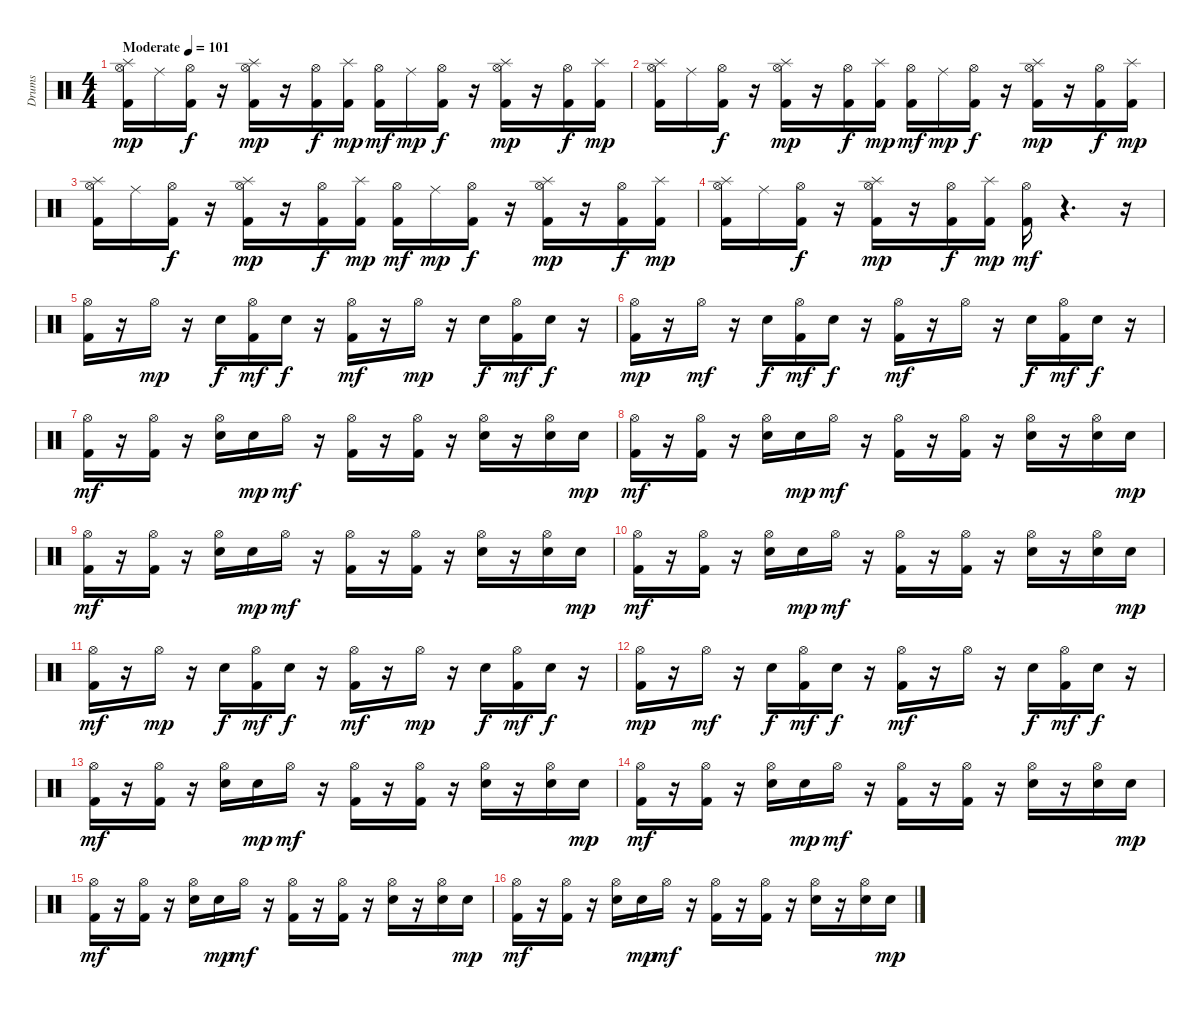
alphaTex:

\track ("Drums" "Drums") {instrument percussion}
\staff {score}
\articulation defaults
\ts (4 4)
\tempo (101 "Moderate")
\clef neutral
\ks c
("Hi-Hat (open)" "Kick (hit) 2" "Splash (hit)").16{dy mp} "Ride (middle)".16 ("Kick (hit) 2" "Hi-Hat (open)").16{dy f} r.16 ("Hi-Hat (open)" "Kick (hit) 2" "Splash (hit)").16{dy mp} r.16 ("Kick (hit) 2" "Hi-Hat (open)").16{dy f} ("Kick (hit) 2" "Splash (hit)").16{dy mp} ("Hi-Hat (open)" "Kick (hit) 2").16{dy mf} "Ride (middle)".16{dy mp} ("Kick (hit) 2" "Hi-Hat (open)").16{dy f} r.16 ("Hi-Hat (open)" "Kick (hit) 2" "Splash (hit)").16{dy mp} r.16 ("Hi-Hat (open)" "Kick (hit) 2").16{dy f} ("Kick (hit) 2" "Splash (hit)").16{dy mp} |
("Hi-Hat (open)" "Kick (hit) 2" "Splash (hit)").16 "Ride (middle)".16 ("Kick (hit) 2" "Hi-Hat (open)").16{dy f} r.16 ("Hi-Hat (open)" "Kick (hit) 2" "Splash (hit)").16{dy mp} r.16 ("Kick (hit) 2" "Hi-Hat (open)").16{dy f} ("Kick (hit) 2" "Splash (hit)").16{dy mp} ("Hi-Hat (open)" "Kick (hit) 2").16{dy mf} "Ride (middle)".16{dy mp} ("Kick (hit) 2" "Hi-Hat (open)").16{dy f} r.16 ("Hi-Hat (open)" "Kick (hit) 2" "Splash (hit)").16{dy mp} r.16 ("Kick (hit) 2" "Hi-Hat (open)").16{dy f} ("Kick (hit) 2" "Splash (hit)").16{dy mp} |
("Hi-Hat (open)" "Kick (hit) 2" "Splash (hit)").16 "Ride (middle)".16 ("Kick (hit) 2" "Hi-Hat (open)").16{dy f} r.16 ("Hi-Hat (open)" "Kick (hit) 2" "Splash (hit)").16{dy mp} r.16 ("Kick (hit) 2" "Hi-Hat (open)").16{dy f} ("Kick (hit) 2" "Splash (hit)").16{dy mp} ("Hi-Hat (open)" "Kick (hit) 2").16{dy mf} "Ride (middle)".16{dy mp} ("Kick (hit) 2" "Hi-Hat (open)").16{dy f} r.16 ("Hi-Hat (open)" "Kick (hit) 2" "Splash (hit)").16{dy mp} r.16 ("Kick (hit) 2" "Hi-Hat (open)").16{dy f} ("Splash (hit)" "Kick (hit) 2").16{dy mp} |
("Hi-Hat (open)" "Kick (hit) 2" "Splash (hit)").16 "Ride (middle)".16 ("Kick (hit) 2" "Hi-Hat (open)").16{dy f} r.16 ("Hi-Hat (open)" "Splash (hit)" "Kick (hit) 2").16{dy mp} r.16 ("Kick (hit) 2" "Hi-Hat (open)").16{dy f} ("Splash (hit)" "Kick (hit) 2").16{dy mp} ("Kick (hit) 2" "Hi-Hat (open)").16{dy mf} r.4{d} r.16 |
("Kick (hit) 2" "Hi-Hat (open)").16 r.16 "Hi-Hat (open)".16{dy mp} r.16 "Snare (hit) 2".16{dy f} ("Kick (hit) 2" "Hi-Hat (open)").16{dy mf} "Snare (hit) 2".16{dy f} r.16 ("Kick (hit) 2" "Hi-Hat (open)").16{dy mf} r.16 "Hi-Hat (open)".16{dy mp} r.16 "Snare (hit) 2".16{dy f} ("Kick (hit) 2" "Hi-Hat (open)").16{dy mf} "Snare (hit) 2".16{dy f} r.16 |
("Kick (hit) 2" "Hi-Hat (open)").16{dy mp} r.16 "Hi-Hat (open)".16{dy mf} r.16 "Snare (hit) 2".16{dy f} ("Kick (hit) 2" "Hi-Hat (open)").16{dy mf} "Snare (hit) 2".16{dy f} r.16 ("Kick (hit) 2" "Hi-Hat (open)").16{dy mf} r.16 "Hi-Hat (open)".16 r.16 "Snare (hit) 2".16{dy f} ("Kick (hit) 2" "Hi-Hat (open)").16{dy mf} "Snare (hit) 2".16{dy f} r.16 |
("Hi-Hat (open)" "Kick (hit) 2").16{dy mf} r.16 ("Kick (hit) 2" "Hi-Hat (open)").16 r.16 ("Snare (hit) 2" "Hi-Hat (open)").16 "Snare (hit) 2".16{dy mp} "Hi-Hat (open)".16{dy mf} r.16 ("Hi-Hat (open)" "Kick (hit) 2").16 r.16 ("Hi-Hat (open)" "Kick (hit) 2").16 r.16 ("Snare (hit) 2" "Hi-Hat (open)").16 r.16 ("Snare (hit) 2" "Hi-Hat (open)").16 "Snare (hit) 2".16{dy mp} |
("Kick (hit) 2" "Hi-Hat (open)").16{dy mf} r.16 ("Kick (hit) 2" "Hi-Hat (open)").16 r.16 ("Snare (hit) 2" "Hi-Hat (open)").16 "Snare (hit) 2".16{dy mp} "Hi-Hat (open)".16{dy mf} r.16 ("Kick (hit) 2" "Hi-Hat (open)").16 r.16 ("Kick (hit) 2" "Hi-Hat (open)").16 r.16 ("Snare (hit) 2" "Hi-Hat (open)").16 r.16 ("Snare (hit) 2" "Hi-Hat (open)").16 "Snare (hit) 2".16{dy mp} |
("Hi-Hat (open)" "Kick (hit) 2").16{dy mf} r.16 ("Kick (hit) 2" "Hi-Hat (open)").16 r.16 ("Snare (hit) 2" "Hi-Hat (open)").16 "Snare (hit) 2".16{dy mp} "Hi-Hat (open)".16{dy mf} r.16 ("Hi-Hat (open)" "Kick (hit) 2").16 r.16 ("Hi-Hat (open)" "Kick (hit) 2").16 r.16 ("Snare (hit) 2" "Hi-Hat (open)").16 r.16 ("Snare (hit) 2" "Hi-Hat (open)").16 "Snare (hit) 2".16{dy mp} |
("Kick (hit) 2" "Hi-Hat (open)").16{dy mf} r.16 ("Kick (hit) 2" "Hi-Hat (open)").16 r.16 ("Snare (hit) 2" "Hi-Hat (open)").16 "Snare (hit) 2".16{dy mp} "Hi-Hat (open)".16{dy mf} r.16 ("Kick (hit) 2" "Hi-Hat (open)").16 r.16 ("Kick (hit) 2" "Hi-Hat (open)").16 r.16 ("Snare (hit) 2" "Hi-Hat (open)").16 r.16 ("Snare (hit) 2" "Hi-Hat (open)").16 "Snare (hit) 2".16{dy mp} |
("Kick (hit) 2" "Hi-Hat (open)").16{dy mf} r.16 "Hi-Hat (open)".16{dy mp} r.16 "Snare (hit) 2".16{dy f} ("Kick (hit) 2" "Hi-Hat (open)").16{dy mf} "Snare (hit) 2".16{dy f} r.16 ("Kick (hit) 2" "Hi-Hat (open)").16{dy mf} r.16 "Hi-Hat (open)".16{dy mp} r.16 "Snare (hit) 2".16{dy f} ("Kick (hit) 2" "Hi-Hat (open)").16{dy mf} "Snare (hit) 2".16{dy f} r.16 |
("Kick (hit) 2" "Hi-Hat (open)").16{dy mp} r.16 "Hi-Hat (open)".16{dy mf} r.16 "Snare (hit) 2".16{dy f} ("Kick (hit) 2" "Hi-Hat (open)").16{dy mf} "Snare (hit) 2".16{dy f} r.16 ("Kick (hit) 2" "Hi-Hat (open)").16{dy mf} r.16 "Hi-Hat (open)".16 r.16 "Snare (hit) 2".16{dy f} ("Kick (hit) 2" "Hi-Hat (open)").16{dy mf} "Snare (hit) 2".16{dy f} r.16 |
("Hi-Hat (open)" "Kick (hit) 2").16{dy mf} r.16 ("Kick (hit) 2" "Hi-Hat (open)").16 r.16 ("Snare (hit) 2" "Hi-Hat (open)").16 "Snare (hit) 2".16{dy mp} "Hi-Hat (open)".16{dy mf} r.16 ("Hi-Hat (open)" "Kick (hit) 2").16 r.16 ("Hi-Hat (open)" "Kick (hit) 2").16 r.16 ("Snare (hit) 2" "Hi-Hat (open)").16 r.16 ("Snare (hit) 2" "Hi-Hat (open)").16 "Snare (hit) 2".16{dy mp} |
("Kick (hit) 2" "Hi-Hat (open)").16{dy mf} r.16 ("Kick (hit) 2" "Hi-Hat (open)").16 r.16 ("Snare (hit) 2" "Hi-Hat (open)").16 "Snare (hit) 2".16{dy mp} "Hi-Hat (open)".16{dy mf} r.16 ("Kick (hit) 2" "Hi-Hat (open)").16 r.16 ("Kick (hit) 2" "Hi-Hat (open)").16 r.16 ("Snare (hit) 2" "Hi-Hat (open)").16 r.16 ("Snare (hit) 2" "Hi-Hat (open)").16 "Snare (hit) 2".16{dy mp} |
("Hi-Hat (open)" "Kick (hit) 2").16{dy mf} r.16 ("Kick (hit) 2" "Hi-Hat (open)").16 r.16 ("Snare (hit) 2" "Hi-Hat (open)").16 "Snare (hit) 2".16{dy mp} "Hi-Hat (open)".16{dy mf} r.16 ("Hi-Hat (open)" "Kick (hit) 2").16 r.16 ("Hi-Hat (open)" "Kick (hit) 2").16 r.16 ("Snare (hit) 2" "Hi-Hat (open)").16 r.16 ("Snare (hit) 2" "Hi-Hat (open)").16 "Snare (hit) 2".16{dy mp} |
("Kick (hit) 2" "Hi-Hat (open)").16{dy mf} r.16 ("Kick (hit) 2" "Hi-Hat (open)").16 r.16 ("Snare (hit) 2" "Hi-Hat (open)").16 "Snare (hit) 2".16{dy mp} "Hi-Hat (open)".16{dy mf} r.16 ("Kick (hit) 2" "Hi-Hat (open)").16 r.16 ("Kick (hit) 2" "Hi-Hat (open)").16 r.16 ("Snare (hit) 2" "Hi-Hat (open)").16 r.16 ("Snare (hit) 2" "Hi-Hat (open)").16 "Snare (hit) 2".16{dy mp}
